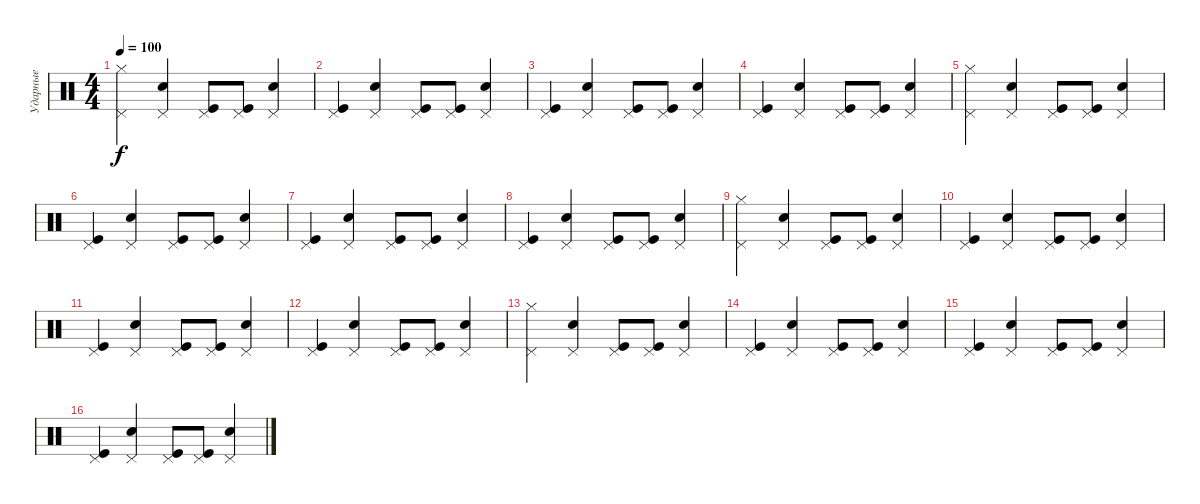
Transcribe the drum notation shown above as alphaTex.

\track ("Ударные" "Ударные") {instrument percussion}
\staff {score}
\articulation defaults
\ts (4 4)
\tempo 100
\clef neutral
\ks c
("Pedal Hi-Hat (hit)" "Hi-Hat (closed)").4{dy f} ("Pedal Hi-Hat (hit)" "Snare (hit) 2").4 ("Pedal Hi-Hat (hit)" "Kick (hit)").8 ("Pedal Hi-Hat (hit)" "Kick (hit)").8 ("Pedal Hi-Hat (hit)" "Snare (hit) 2").4 |
("Pedal Hi-Hat (hit)" "Kick (hit)").4 ("Pedal Hi-Hat (hit)" "Snare (hit) 2").4 ("Pedal Hi-Hat (hit)" "Kick (hit)").8 ("Pedal Hi-Hat (hit)" "Kick (hit)").8 ("Pedal Hi-Hat (hit)" "Snare (hit) 2").4 |
("Pedal Hi-Hat (hit)" "Kick (hit)").4 ("Pedal Hi-Hat (hit)" "Snare (hit) 2").4 ("Pedal Hi-Hat (hit)" "Kick (hit)").8 ("Pedal Hi-Hat (hit)" "Kick (hit)").8 ("Pedal Hi-Hat (hit)" "Snare (hit) 2").4 |
("Pedal Hi-Hat (hit)" "Kick (hit)").4 ("Pedal Hi-Hat (hit)" "Snare (hit) 2").4 ("Pedal Hi-Hat (hit)" "Kick (hit)").8 ("Pedal Hi-Hat (hit)" "Kick (hit)").8 ("Pedal Hi-Hat (hit)" "Snare (hit) 2").4 |
("Pedal Hi-Hat (hit)" "Hi-Hat (closed)").4 ("Pedal Hi-Hat (hit)" "Snare (hit) 2").4 ("Pedal Hi-Hat (hit)" "Kick (hit)").8 ("Pedal Hi-Hat (hit)" "Kick (hit)").8 ("Pedal Hi-Hat (hit)" "Snare (hit) 2").4 |
("Pedal Hi-Hat (hit)" "Kick (hit)").4 ("Pedal Hi-Hat (hit)" "Snare (hit) 2").4 ("Pedal Hi-Hat (hit)" "Kick (hit)").8 ("Pedal Hi-Hat (hit)" "Kick (hit)").8 ("Pedal Hi-Hat (hit)" "Snare (hit) 2").4 |
("Pedal Hi-Hat (hit)" "Kick (hit)").4 ("Pedal Hi-Hat (hit)" "Snare (hit) 2").4 ("Pedal Hi-Hat (hit)" "Kick (hit)").8 ("Pedal Hi-Hat (hit)" "Kick (hit)").8 ("Pedal Hi-Hat (hit)" "Snare (hit) 2").4 |
("Pedal Hi-Hat (hit)" "Kick (hit)").4 ("Pedal Hi-Hat (hit)" "Snare (hit) 2").4 ("Pedal Hi-Hat (hit)" "Kick (hit)").8 ("Pedal Hi-Hat (hit)" "Kick (hit)").8 ("Pedal Hi-Hat (hit)" "Snare (hit) 2").4 |
("Pedal Hi-Hat (hit)" "Hi-Hat (closed)").4 ("Pedal Hi-Hat (hit)" "Snare (hit) 2").4 ("Pedal Hi-Hat (hit)" "Kick (hit)").8 ("Pedal Hi-Hat (hit)" "Kick (hit)").8 ("Pedal Hi-Hat (hit)" "Snare (hit) 2").4 |
("Pedal Hi-Hat (hit)" "Kick (hit)").4 ("Pedal Hi-Hat (hit)" "Snare (hit) 2").4 ("Pedal Hi-Hat (hit)" "Kick (hit)").8 ("Pedal Hi-Hat (hit)" "Kick (hit)").8 ("Pedal Hi-Hat (hit)" "Snare (hit) 2").4 |
("Pedal Hi-Hat (hit)" "Kick (hit)").4 ("Pedal Hi-Hat (hit)" "Snare (hit) 2").4 ("Pedal Hi-Hat (hit)" "Kick (hit)").8 ("Pedal Hi-Hat (hit)" "Kick (hit)").8 ("Pedal Hi-Hat (hit)" "Snare (hit) 2").4 |
("Pedal Hi-Hat (hit)" "Kick (hit)").4 ("Pedal Hi-Hat (hit)" "Snare (hit) 2").4 ("Pedal Hi-Hat (hit)" "Kick (hit)").8 ("Pedal Hi-Hat (hit)" "Kick (hit)").8 ("Pedal Hi-Hat (hit)" "Snare (hit) 2").4 |
("Pedal Hi-Hat (hit)" "Hi-Hat (closed)").4 ("Pedal Hi-Hat (hit)" "Snare (hit) 2").4 ("Pedal Hi-Hat (hit)" "Kick (hit)").8 ("Pedal Hi-Hat (hit)" "Kick (hit)").8 ("Pedal Hi-Hat (hit)" "Snare (hit) 2").4 |
("Pedal Hi-Hat (hit)" "Kick (hit)").4 ("Pedal Hi-Hat (hit)" "Snare (hit) 2").4 ("Pedal Hi-Hat (hit)" "Kick (hit)").8 ("Pedal Hi-Hat (hit)" "Kick (hit)").8 ("Pedal Hi-Hat (hit)" "Snare (hit) 2").4 |
("Pedal Hi-Hat (hit)" "Kick (hit)").4 ("Pedal Hi-Hat (hit)" "Snare (hit) 2").4 ("Pedal Hi-Hat (hit)" "Kick (hit)").8 ("Pedal Hi-Hat (hit)" "Kick (hit)").8 ("Pedal Hi-Hat (hit)" "Snare (hit) 2").4 |
("Pedal Hi-Hat (hit)" "Kick (hit)").4 ("Pedal Hi-Hat (hit)" "Snare (hit) 2").4 ("Pedal Hi-Hat (hit)" "Kick (hit)").8 ("Pedal Hi-Hat (hit)" "Kick (hit)").8 ("Pedal Hi-Hat (hit)" "Snare (hit) 2").4
